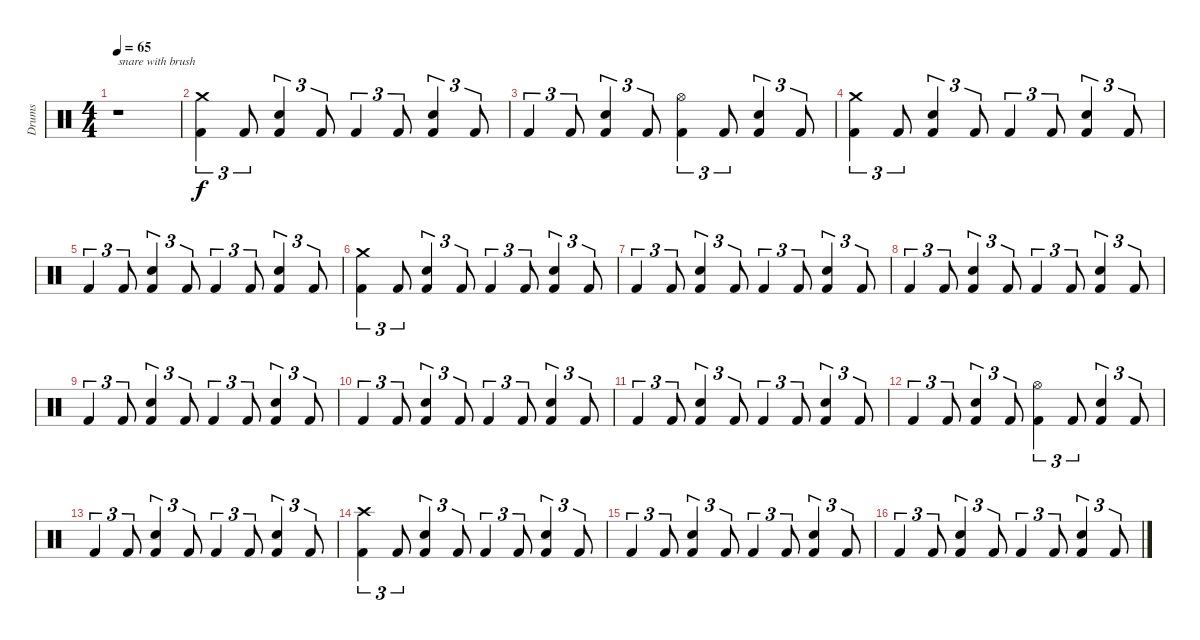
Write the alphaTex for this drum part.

\track ("Drums" "Drums") {instrument percussion}
\staff {score}
\articulation defaults
\ts (4 4)
\tempo 65
\clef neutral
\ks c
r.1{txt "snare with brush" dy f} |
("Crash medium (hit)" "Kick (hit) 2").4{tu (3 2)} "Kick (hit) 2".8{tu (3 2)} ("Snare (hit) 2" "Kick (hit) 2").4{tu (3 2)} "Kick (hit) 2".8{tu (3 2)} "Kick (hit) 2".4{tu (3 2)} "Kick (hit) 2".8{tu (3 2)} ("Snare (hit) 2" "Kick (hit) 2").4{tu (3 2)} "Kick (hit) 2".8{tu (3 2)} |
"Kick (hit) 2".4{tu (3 2)} "Kick (hit) 2".8{tu (3 2)} ("Snare (hit) 2" "Kick (hit) 2").4{tu (3 2)} "Kick (hit) 2".8{tu (3 2)} ("Hi-Hat (open)" "Kick (hit) 2").4{tu (3 2)} "Kick (hit) 2".8{tu (3 2)} ("Snare (hit) 2" "Kick (hit) 2").4{tu (3 2)} "Kick (hit) 2".8{tu (3 2)} |
("Crash medium (hit)" "Kick (hit) 2").4{tu (3 2)} "Kick (hit) 2".8{tu (3 2)} ("Snare (hit) 2" "Kick (hit) 2").4{tu (3 2)} "Kick (hit) 2".8{tu (3 2)} "Kick (hit) 2".4{tu (3 2)} "Kick (hit) 2".8{tu (3 2)} ("Snare (hit) 2" "Kick (hit) 2").4{tu (3 2)} "Kick (hit) 2".8{tu (3 2)} |
"Kick (hit) 2".4{tu (3 2)} "Kick (hit) 2".8{tu (3 2)} ("Snare (hit) 2" "Kick (hit) 2").4{tu (3 2)} "Kick (hit) 2".8{tu (3 2)} "Kick (hit) 2".4{tu (3 2)} "Kick (hit) 2".8{tu (3 2)} ("Snare (hit) 2" "Kick (hit) 2").4{tu (3 2)} "Kick (hit) 2".8{tu (3 2)} |
("Crash medium (hit)" "Kick (hit) 2").4{tu (3 2)} "Kick (hit) 2".8{tu (3 2)} ("Snare (hit) 2" "Kick (hit) 2").4{tu (3 2)} "Kick (hit) 2".8{tu (3 2)} "Kick (hit) 2".4{tu (3 2)} "Kick (hit) 2".8{tu (3 2)} ("Snare (hit) 2" "Kick (hit) 2").4{tu (3 2)} "Kick (hit) 2".8{tu (3 2)} |
"Kick (hit) 2".4{tu (3 2)} "Kick (hit) 2".8{tu (3 2)} ("Snare (hit) 2" "Kick (hit) 2").4{tu (3 2)} "Kick (hit) 2".8{tu (3 2)} "Kick (hit) 2".4{tu (3 2)} "Kick (hit) 2".8{tu (3 2)} ("Snare (hit) 2" "Kick (hit) 2").4{tu (3 2)} "Kick (hit) 2".8{tu (3 2)} |
"Kick (hit) 2".4{tu (3 2)} "Kick (hit) 2".8{tu (3 2)} ("Snare (hit) 2" "Kick (hit) 2").4{tu (3 2)} "Kick (hit) 2".8{tu (3 2)} "Kick (hit) 2".4{tu (3 2)} "Kick (hit) 2".8{tu (3 2)} ("Snare (hit) 2" "Kick (hit) 2").4{tu (3 2)} "Kick (hit) 2".8{tu (3 2)} |
"Kick (hit) 2".4{tu (3 2)} "Kick (hit) 2".8{tu (3 2)} ("Snare (hit) 2" "Kick (hit) 2").4{tu (3 2)} "Kick (hit) 2".8{tu (3 2)} "Kick (hit) 2".4{tu (3 2)} "Kick (hit) 2".8{tu (3 2)} ("Snare (hit) 2" "Kick (hit) 2").4{tu (3 2)} "Kick (hit) 2".8{tu (3 2)} |
"Kick (hit) 2".4{tu (3 2)} "Kick (hit) 2".8{tu (3 2)} ("Snare (hit) 2" "Kick (hit) 2").4{tu (3 2)} "Kick (hit) 2".8{tu (3 2)} "Kick (hit) 2".4{tu (3 2)} "Kick (hit) 2".8{tu (3 2)} ("Snare (hit) 2" "Kick (hit) 2").4{tu (3 2)} "Kick (hit) 2".8{tu (3 2)} |
"Kick (hit) 2".4{tu (3 2)} "Kick (hit) 2".8{tu (3 2)} ("Snare (hit) 2" "Kick (hit) 2").4{tu (3 2)} "Kick (hit) 2".8{tu (3 2)} "Kick (hit) 2".4{tu (3 2)} "Kick (hit) 2".8{tu (3 2)} ("Snare (hit) 2" "Kick (hit) 2").4{tu (3 2)} "Kick (hit) 2".8{tu (3 2)} |
"Kick (hit) 2".4{tu (3 2)} "Kick (hit) 2".8{tu (3 2)} ("Snare (hit) 2" "Kick (hit) 2").4{tu (3 2)} "Kick (hit) 2".8{tu (3 2)} ("Hi-Hat (open)" "Kick (hit) 2").4{tu (3 2)} "Kick (hit) 2".8{tu (3 2)} ("Snare (hit) 2" "Kick (hit) 2").4{tu (3 2)} "Kick (hit) 2".8{tu (3 2)} |
"Kick (hit) 2".4{tu (3 2)} "Kick (hit) 2".8{tu (3 2)} ("Snare (hit) 2" "Kick (hit) 2").4{tu (3 2)} "Kick (hit) 2".8{tu (3 2)} "Kick (hit) 2".4{tu (3 2)} "Kick (hit) 2".8{tu (3 2)} ("Snare (hit) 2" "Kick (hit) 2").4{tu (3 2)} "Kick (hit) 2".8{tu (3 2)} |
("Crash high (hit)" "Kick (hit) 2").4{tu (3 2)} "Kick (hit) 2".8{tu (3 2)} ("Snare (hit) 2" "Kick (hit) 2").4{tu (3 2)} "Kick (hit) 2".8{tu (3 2)} "Kick (hit) 2".4{tu (3 2)} "Kick (hit) 2".8{tu (3 2)} ("Snare (hit) 2" "Kick (hit) 2").4{tu (3 2)} "Kick (hit) 2".8{tu (3 2)} |
"Kick (hit) 2".4{tu (3 2)} "Kick (hit) 2".8{tu (3 2)} ("Snare (hit) 2" "Kick (hit) 2").4{tu (3 2)} "Kick (hit) 2".8{tu (3 2)} "Kick (hit) 2".4{tu (3 2)} "Kick (hit) 2".8{tu (3 2)} ("Snare (hit) 2" "Kick (hit) 2").4{tu (3 2)} "Kick (hit) 2".8{tu (3 2)} |
"Kick (hit) 2".4{tu (3 2)} "Kick (hit) 2".8{tu (3 2)} ("Snare (hit) 2" "Kick (hit) 2").4{tu (3 2)} "Kick (hit) 2".8{tu (3 2)} "Kick (hit) 2".4{tu (3 2)} "Kick (hit) 2".8{tu (3 2)} ("Snare (hit) 2" "Kick (hit) 2").4{tu (3 2)} "Kick (hit) 2".8{tu (3 2)}
